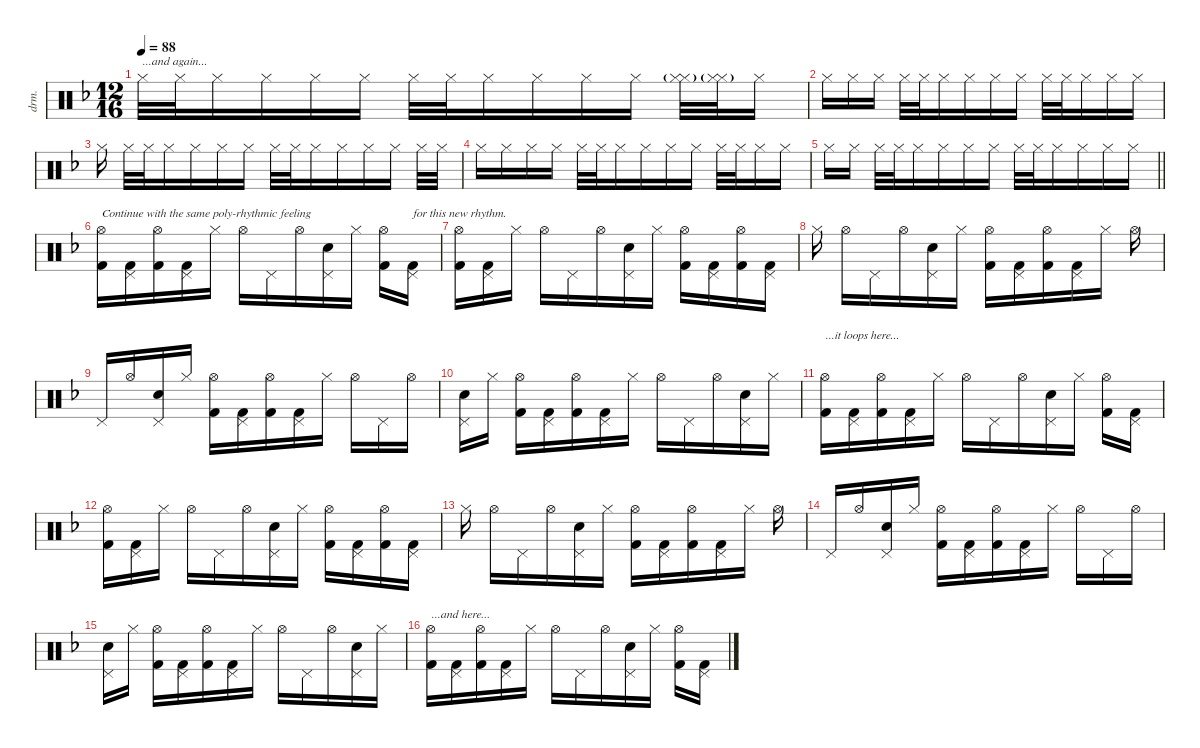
\defaultSystemsLayout 4
\hideDynamics
\bracketExtendMode nobrackets
\otherSystemsTrackNameOrientation horizontal
\track ("Drums" "drm.") {instrument percussion}
\staff {score}
\articulation defaults
\ts (12 16)
\tempo 88
\clef neutral
\ks dminor "Hi-Hat (closed)"{acc forcenatural}.32{txt "...and again..." dy mf beam Down} "Hi-Hat (closed)"{acc forcenatural}.32{beam Down} "Hi-Hat (closed)"{acc forcenatural}.16{beam Down} "Hi-Hat (closed)"{acc forcenatural}.16{beam Down beam merge} "Hi-Hat (closed)"{acc forcenatural}.16{beam Down} "Hi-Hat (closed)"{acc forcenatural}.16{beam Down beam split} "Hi-Hat (closed)"{acc forcenatural}.32{beam Down} "Hi-Hat (closed)"{acc forcenatural}.32{beam Down beam merge} "Hi-Hat (closed)"{acc forcenatural}.16{beam Down} "Hi-Hat (closed)"{acc forcenatural}.16{beam Down} "Hi-Hat (closed)"{acc forcenatural}.16{beam Down beam merge} "Hi-Hat (closed)"{acc forcenatural}.16{beam Down beam split}
("Hi-Hat (closed)"{acc forcenatural} "Hi-Hat (closed)"{g acc forcenatural}).32{beam Down} ("Hi-Hat (closed)"{acc forcenatural} "Hi-Hat (closed)"{g acc forcenatural}).32{beam Down} "Hi-Hat (closed)"{acc forcenatural}.16{beam Down} |
"Hi-Hat (closed)"{acc forcenatural}.16{beam Down} "Hi-Hat (closed)"{acc forcenatural}.16{beam Down} "Hi-Hat (closed)"{acc forcenatural}.16{beam Down beam split} "Hi-Hat (closed)"{acc forcenatural}.32{beam Down} "Hi-Hat (closed)"{acc forcenatural}.32{beam Down beam merge} "Hi-Hat (closed)"{acc forcenatural}.16{beam Down} "Hi-Hat (closed)"{acc forcenatural}.16{beam Down beam merge} "Hi-Hat (closed)"{acc forcenatural}.16{beam Down beam merge} "Hi-Hat (closed)"{acc forcenatural}.16{beam Down beam split} "Hi-Hat (closed)"{acc forcenatural}.32{beam Down} "Hi-Hat (closed)"{acc forcenatural}.32{beam Down beam merge} "Hi-Hat (closed)"{acc forcenatural}.16{beam Down} "Hi-Hat (closed)"{acc forcenatural}.16{beam Down} "Hi-Hat (closed)"{acc forcenatural}.16{beam Down} |
"Hi-Hat (closed)"{acc forcenatural}.16{beam Down beam split} "Hi-Hat (closed)"{acc forcenatural}.32{beam Down} "Hi-Hat (closed)"{acc forcenatural}.32{beam Down beam merge} "Hi-Hat (closed)"{acc forcenatural}.16{beam Down beam merge} "Hi-Hat (closed)"{acc forcenatural}.16{beam Down} "Hi-Hat (closed)"{acc forcenatural}.16{beam Down beam merge} "Hi-Hat (closed)"{acc forcenatural}.16{beam Down beam split} "Hi-Hat (closed)"{acc forcenatural}.32{beam Down} "Hi-Hat (closed)"{acc forcenatural}.32{beam Down beam merge} "Hi-Hat (closed)"{acc forcenatural}.16{beam Down} "Hi-Hat (closed)"{acc forcenatural}.16{beam Down beam merge} "Hi-Hat (closed)"{acc forcenatural}.16{beam Down beam merge} "Hi-Hat (closed)"{acc forcenatural}.16{beam Down beam split} "Hi-Hat (closed)"{acc forcenatural}.32{beam Down} "Hi-Hat (closed)"{acc forcenatural}.32{beam Down} |
"Hi-Hat (closed)"{acc forcenatural}.16{beam Down} "Hi-Hat (closed)"{acc forcenatural}.16{beam Down} "Hi-Hat (closed)"{acc forcenatural}.16{beam Down beam merge} "Hi-Hat (closed)"{acc forcenatural}.16{beam Down beam split} "Hi-Hat (closed)"{acc forcenatural}.32{beam Down} "Hi-Hat (closed)"{acc forcenatural}.32{beam Down beam merge} "Hi-Hat (closed)"{acc forcenatural}.16{beam Down beam merge} "Hi-Hat (closed)"{acc forcenatural}.16{beam Down beam merge} "Hi-Hat (closed)"{acc forcenatural}.16{beam Down beam merge} "Hi-Hat (closed)"{acc forcenatural}.16{beam Down beam split} "Hi-Hat (closed)"{acc forcenatural}.32{beam Down} "Hi-Hat (closed)"{acc forcenatural}.32{beam Down beam merge} "Hi-Hat (closed)"{acc forcenatural}.16{beam Down} "Hi-Hat (closed)"{acc forcenatural}.16{beam Down} |
\barLineRight lightlight "Hi-Hat (closed)"{acc forcenatural}.16{beam Down beam merge} "Hi-Hat (closed)"{acc forcenatural}.16{beam Down beam split} "Hi-Hat (closed)"{acc forcenatural}.32{beam Down} "Hi-Hat (closed)"{acc forcenatural}.32{beam Down beam merge} "Hi-Hat (closed)"{acc forcenatural}.16{beam Down beam merge} "Hi-Hat (closed)"{acc forcenatural}.16{beam Down beam merge} "Hi-Hat (closed)"{acc forcenatural}.16{beam Down beam merge} "Hi-Hat (closed)"{acc forcenatural}.16{beam Down beam split} "Hi-Hat (closed)"{acc forcenatural}.32{beam Down} "Hi-Hat (closed)"{acc forcenatural}.32{beam Down beam merge} "Hi-Hat (closed)"{acc forcenatural}.16{beam Down beam merge} "Hi-Hat (closed)"{acc forcenatural}.16{beam Down beam merge} "Hi-Hat (closed)"{acc forcenatural}.16{beam Down beam merge} "Hi-Hat (closed)"{acc forcenatural}.16{beam Down}
|
("Hi-Hat (open)"{acc forcenatural} "Kick (hit) 2"{acc forcenatural}).16{txt "Continue with the same poly-rhythmic feeling" dy f beam Down beam merge} ("Pedal Hi-Hat (hit)"{acc forcenatural} "Kick (hit) 2"{acc forcenatural}).16{beam Down} ("Hi-Hat (open)"{acc forcenatural} "Kick (hit) 2"{acc forcenatural}).16{beam Down beam merge} ("Pedal Hi-Hat (hit)"{acc forcenatural} "Kick (hit) 2"{acc forcenatural}).16{beam Down beam merge} "Hi-Hat (closed)"{acc forcenatural}.16{beam Down beam split} "Hi-Hat (open)"{acc forcenatural}.16{beam Down beam merge} "Pedal Hi-Hat (hit)"{acc forcenatural}.16{beam Down beam merge} "Hi-Hat (open)"{acc forcenatural}.16{beam Down beam merge} ("Pedal Hi-Hat (hit)"{acc forcenatural} "Snare (hit) 2"{acc forcenatural}).16{beam Down beam merge} "Hi-Hat (closed)"{acc forcenatural}.16{beam Down beam split} ("Hi-Hat (open)"{acc forcenatural} "Kick (hit) 2"{acc forcenatural}).16{beam Down beam merge} ("Pedal Hi-Hat (hit)"{acc forcenatural} "Kick (hit) 2"{acc forcenatural}).16{txt "for this new rhythm." beam Down} |
("Hi-Hat (open)"{acc forcenatural} "Kick (hit) 2"{acc forcenatural}).16{beam Down beam merge} ("Pedal Hi-Hat (hit)"{acc forcenatural} "Kick (hit) 2"{acc forcenatural}).16{beam Down beam merge} "Hi-Hat (closed)"{acc forcenatural}.16{beam Down} "Hi-Hat (open)"{acc forcenatural}.16{beam Down} "Pedal Hi-Hat (hit)"{acc forcenatural}.16{beam Down beam merge} "Hi-Hat (open)"{acc forcenatural}.16{beam Down beam merge} ("Pedal Hi-Hat (hit)"{acc forcenatural} "Snare (hit) 2"{acc forcenatural}).16{beam Down beam merge} "Hi-Hat (closed)"{acc forcenatural}.16{beam Down beam split} ("Hi-Hat (open)"{acc forcenatural} "Kick (hit) 2"{acc forcenatural}).16{beam Down beam merge} ("Pedal Hi-Hat (hit)"{acc forcenatural} "Kick (hit) 2"{acc forcenatural}).16{beam Down} ("Hi-Hat (open)"{acc forcenatural} "Kick (hit) 2"{acc forcenatural}).16{beam Down beam merge} ("Pedal Hi-Hat (hit)"{acc forcenatural} "Kick (hit) 2"{acc forcenatural}).16{beam Down} |
"Hi-Hat (closed)"{acc forcenatural}.16{beam Down beam split} "Hi-Hat (open)"{acc forcenatural}.16{beam Down} "Pedal Hi-Hat (hit)"{acc forcenatural}.16{beam Down beam merge} "Hi-Hat (open)"{acc forcenatural}.16{beam Down beam merge} ("Pedal Hi-Hat (hit)"{acc forcenatural} "Snare (hit) 2"{acc forcenatural}).16{beam Down beam merge} "Hi-Hat (closed)"{acc forcenatural}.16{beam Down beam split} ("Hi-Hat (open)"{acc forcenatural} "Kick (hit) 2"{acc forcenatural}).16{beam Down beam merge} ("Pedal Hi-Hat (hit)"{acc forcenatural} "Kick (hit) 2"{acc forcenatural}).16{beam Down} ("Hi-Hat (open)"{acc forcenatural} "Kick (hit) 2"{acc forcenatural}).16{beam Down beam merge} ("Pedal Hi-Hat (hit)"{acc forcenatural} "Kick (hit) 2"{acc forcenatural}).16{beam Down beam merge} "Hi-Hat (closed)"{acc forcenatural}.16{beam Down beam split} "Hi-Hat (open)"{acc forcenatural}.16{beam Down} |
"Pedal Hi-Hat (hit)"{acc forcenatural}.16{beam Up beam merge} "Hi-Hat (open)"{acc forcenatural}.16{beam Up beam merge} ("Pedal Hi-Hat (hit)"{acc forcenatural} "Snare (hit) 2"{acc forcenatural}).16{beam Up beam merge} "Hi-Hat (closed)"{acc forcenatural}.16{beam Up beam split} ("Hi-Hat (open)"{acc forcenatural} "Kick (hit) 2"{acc forcenatural}).16{beam Down beam merge} ("Pedal Hi-Hat (hit)"{acc forcenatural} "Kick (hit) 2"{acc forcenatural}).16{beam Down beam merge} ("Hi-Hat (open)"{acc forcenatural} "Kick (hit) 2"{acc forcenatural}).16{beam Down beam merge} ("Pedal Hi-Hat (hit)"{acc forcenatural} "Kick (hit) 2"{acc forcenatural}).16{beam Down beam merge} "Hi-Hat (closed)"{acc forcenatural}.16{beam Down beam split} "Hi-Hat (open)"{acc forcenatural}.16{beam Down beam merge} "Pedal Hi-Hat (hit)"{acc forcenatural}.16{beam Down beam merge} "Hi-Hat (open)"{acc forcenatural}.16{beam Down} |
("Pedal Hi-Hat (hit)"{acc forcenatural} "Snare (hit) 2"{acc forcenatural}).16{beam Down beam merge} "Hi-Hat (closed)"{acc forcenatural}.16{beam Down beam split} ("Hi-Hat (open)"{acc forcenatural} "Kick (hit) 2"{acc forcenatural}).16{beam Down beam merge} ("Pedal Hi-Hat (hit)"{acc forcenatural} "Kick (hit) 2"{acc forcenatural}).16{beam Down beam merge} ("Hi-Hat (open)"{acc forcenatural} "Kick (hit) 2"{acc forcenatural}).16{beam Down beam merge} ("Pedal Hi-Hat (hit)"{acc forcenatural} "Kick (hit) 2"{acc forcenatural}).16{beam Down beam merge} "Hi-Hat (closed)"{acc forcenatural}.16{beam Down beam split} "Hi-Hat (open)"{acc forcenatural}.16{beam Down} "Pedal Hi-Hat (hit)"{acc forcenatural}.16{beam Down beam merge} "Hi-Hat (open)"{acc forcenatural}.16{beam Down beam merge} ("Pedal Hi-Hat (hit)"{acc forcenatural} "Snare (hit) 2"{acc forcenatural}).16{beam Down beam merge} "Hi-Hat (closed)"{acc forcenatural}.16{beam Down} |
("Hi-Hat (open)"{acc forcenatural} "Kick (hit) 2"{acc forcenatural}).16{txt "...it loops here..." beam Down beam merge} ("Pedal Hi-Hat (hit)"{acc forcenatural} "Kick (hit) 2"{acc forcenatural}).16{beam Down} ("Hi-Hat (open)"{acc forcenatural} "Kick (hit) 2"{acc forcenatural}).16{beam Down beam merge} ("Pedal Hi-Hat (hit)"{acc forcenatural} "Kick (hit) 2"{acc forcenatural}).16{beam Down beam merge} "Hi-Hat (closed)"{acc forcenatural}.16{beam Down beam split} "Hi-Hat (open)"{acc forcenatural}.16{beam Down beam merge} "Pedal Hi-Hat (hit)"{acc forcenatural}.16{beam Down beam merge} "Hi-Hat (open)"{acc forcenatural}.16{beam Down beam merge} ("Pedal Hi-Hat (hit)"{acc forcenatural} "Snare (hit) 2"{acc forcenatural}).16{beam Down beam merge} "Hi-Hat (closed)"{acc forcenatural}.16{beam Down beam split} ("Hi-Hat (open)"{acc forcenatural} "Kick (hit) 2"{acc forcenatural}).16{beam Down beam merge} ("Pedal Hi-Hat (hit)"{acc forcenatural} "Kick (hit) 2"{acc forcenatural}).16{beam Down} |
("Hi-Hat (open)"{acc forcenatural} "Kick (hit) 2"{acc forcenatural}).16{beam Down beam merge} ("Pedal Hi-Hat (hit)"{acc forcenatural} "Kick (hit) 2"{acc forcenatural}).16{beam Down beam merge} "Hi-Hat (closed)"{acc forcenatural}.16{beam Down} "Hi-Hat (open)"{acc forcenatural}.16{beam Down} "Pedal Hi-Hat (hit)"{acc forcenatural}.16{beam Down beam merge} "Hi-Hat (open)"{acc forcenatural}.16{beam Down beam merge} ("Pedal Hi-Hat (hit)"{acc forcenatural} "Snare (hit) 2"{acc forcenatural}).16{beam Down beam merge} "Hi-Hat (closed)"{acc forcenatural}.16{beam Down beam split} ("Hi-Hat (open)"{acc forcenatural} "Kick (hit) 2"{acc forcenatural}).16{beam Down beam merge} ("Pedal Hi-Hat (hit)"{acc forcenatural} "Kick (hit) 2"{acc forcenatural}).16{beam Down} ("Hi-Hat (open)"{acc forcenatural} "Kick (hit) 2"{acc forcenatural}).16{beam Down beam merge} ("Pedal Hi-Hat (hit)"{acc forcenatural} "Kick (hit) 2"{acc forcenatural}).16{beam Down} |
"Hi-Hat (closed)"{acc forcenatural}.16{beam Down beam split} "Hi-Hat (open)"{acc forcenatural}.16{beam Down} "Pedal Hi-Hat (hit)"{acc forcenatural}.16{beam Down beam merge} "Hi-Hat (open)"{acc forcenatural}.16{beam Down beam merge} ("Pedal Hi-Hat (hit)"{acc forcenatural} "Snare (hit) 2"{acc forcenatural}).16{beam Down beam merge} "Hi-Hat (closed)"{acc forcenatural}.16{beam Down beam split} ("Hi-Hat (open)"{acc forcenatural} "Kick (hit) 2"{acc forcenatural}).16{beam Down beam merge} ("Pedal Hi-Hat (hit)"{acc forcenatural} "Kick (hit) 2"{acc forcenatural}).16{beam Down} ("Hi-Hat (open)"{acc forcenatural} "Kick (hit) 2"{acc forcenatural}).16{beam Down beam merge} ("Pedal Hi-Hat (hit)"{acc forcenatural} "Kick (hit) 2"{acc forcenatural}).16{beam Down beam merge} "Hi-Hat (closed)"{acc forcenatural}.16{beam Down beam split} "Hi-Hat (open)"{acc forcenatural}.16{beam Down} |
"Pedal Hi-Hat (hit)"{acc forcenatural}.16{beam Up beam merge} "Hi-Hat (open)"{acc forcenatural}.16{beam Up beam merge} ("Pedal Hi-Hat (hit)"{acc forcenatural} "Snare (hit) 2"{acc forcenatural}).16{beam Up beam merge} "Hi-Hat (closed)"{acc forcenatural}.16{beam Up beam split} ("Hi-Hat (open)"{acc forcenatural} "Kick (hit) 2"{acc forcenatural}).16{beam Down beam merge} ("Pedal Hi-Hat (hit)"{acc forcenatural} "Kick (hit) 2"{acc forcenatural}).16{beam Down beam merge} ("Hi-Hat (open)"{acc forcenatural} "Kick (hit) 2"{acc forcenatural}).16{beam Down beam merge} ("Pedal Hi-Hat (hit)"{acc forcenatural} "Kick (hit) 2"{acc forcenatural}).16{beam Down beam merge} "Hi-Hat (closed)"{acc forcenatural}.16{beam Down beam split} "Hi-Hat (open)"{acc forcenatural}.16{beam Down beam merge} "Pedal Hi-Hat (hit)"{acc forcenatural}.16{beam Down beam merge} "Hi-Hat (open)"{acc forcenatural}.16{beam Down} |
("Pedal Hi-Hat (hit)"{acc forcenatural} "Snare (hit) 2"{acc forcenatural}).16{beam Down beam merge} "Hi-Hat (closed)"{acc forcenatural}.16{beam Down beam split} ("Hi-Hat (open)"{acc forcenatural} "Kick (hit) 2"{acc forcenatural}).16{beam Down beam merge} ("Pedal Hi-Hat (hit)"{acc forcenatural} "Kick (hit) 2"{acc forcenatural}).16{beam Down beam merge} ("Hi-Hat (open)"{acc forcenatural} "Kick (hit) 2"{acc forcenatural}).16{beam Down beam merge} ("Pedal Hi-Hat (hit)"{acc forcenatural} "Kick (hit) 2"{acc forcenatural}).16{beam Down beam merge} "Hi-Hat (closed)"{acc forcenatural}.16{beam Down beam split} "Hi-Hat (open)"{acc forcenatural}.16{beam Down} "Pedal Hi-Hat (hit)"{acc forcenatural}.16{beam Down beam merge} "Hi-Hat (open)"{acc forcenatural}.16{beam Down beam merge} ("Pedal Hi-Hat (hit)"{acc forcenatural} "Snare (hit) 2"{acc forcenatural}).16{beam Down beam merge} "Hi-Hat (closed)"{acc forcenatural}.16{beam Down} |
("Hi-Hat (open)"{acc forcenatural} "Kick (hit) 2"{acc forcenatural}).16{txt "...and here..." beam Down beam merge} ("Pedal Hi-Hat (hit)"{acc forcenatural} "Kick (hit) 2"{acc forcenatural}).16{beam Down} ("Hi-Hat (open)"{acc forcenatural} "Kick (hit) 2"{acc forcenatural}).16{beam Down beam merge} ("Pedal Hi-Hat (hit)"{acc forcenatural} "Kick (hit) 2"{acc forcenatural}).16{beam Down beam merge} "Hi-Hat (closed)"{acc forcenatural}.16{beam Down beam split} "Hi-Hat (open)"{acc forcenatural}.16{beam Down beam merge} "Pedal Hi-Hat (hit)"{acc forcenatural}.16{beam Down beam merge} "Hi-Hat (open)"{acc forcenatural}.16{beam Down beam merge} ("Pedal Hi-Hat (hit)"{acc forcenatural} "Snare (hit) 2"{acc forcenatural}).16{beam Down beam merge} "Hi-Hat (closed)"{acc forcenatural}.16{beam Down beam split} ("Hi-Hat (open)"{acc forcenatural} "Kick (hit) 2"{acc forcenatural}).16{beam Down beam merge} ("Pedal Hi-Hat (hit)"{acc forcenatural} "Kick (hit) 2"{acc forcenatural}).16{beam Down}
